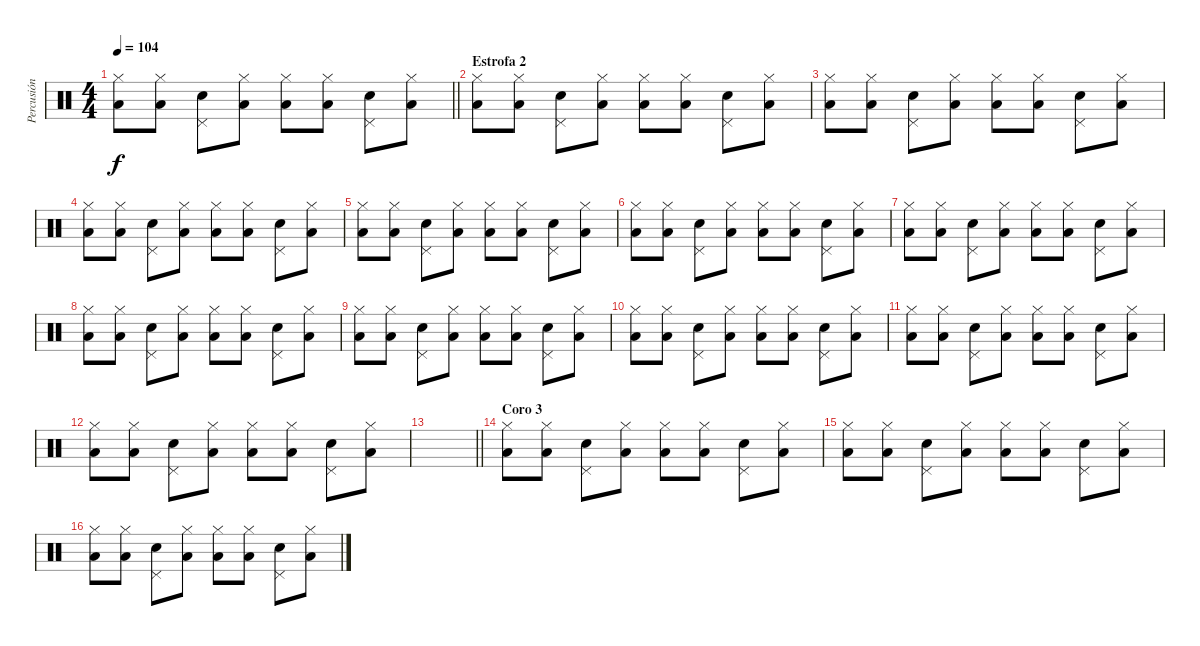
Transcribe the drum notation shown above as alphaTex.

\track ("Percusión" "Percusión") {instrument percussion}
\staff {score}
\articulation defaults
\ts (4 4)
\tempo 104
\clef neutral
\barLineRight lightlight
\ks c
("Low Floor Tom (hit)" "Hi-Hat (closed)").8{dy f} ("Low Floor Tom (hit)" "Hi-Hat (closed)").8 ("Pedal Hi-Hat (hit)" "Snare (hit) 2").8 ("Low Floor Tom (hit)" "Hi-Hat (closed)").8 ("Low Floor Tom (hit)" "Hi-Hat (closed)").8 ("Low Floor Tom (hit)" "Hi-Hat (closed)").8 ("Pedal Hi-Hat (hit)" "Snare (hit) 2").8 ("Low Floor Tom (hit)" "Hi-Hat (closed)").8 |
\section ("" "Estrofa 2")
("Low Floor Tom (hit)" "Hi-Hat (closed)").8 ("Low Floor Tom (hit)" "Hi-Hat (closed)").8 ("Pedal Hi-Hat (hit)" "Snare (hit) 2").8 ("Low Floor Tom (hit)" "Hi-Hat (closed)").8 ("Low Floor Tom (hit)" "Hi-Hat (closed)").8 ("Low Floor Tom (hit)" "Hi-Hat (closed)").8 ("Pedal Hi-Hat (hit)" "Snare (hit) 2").8 ("Low Floor Tom (hit)" "Hi-Hat (closed)").8 |
("Low Floor Tom (hit)" "Hi-Hat (closed)").8 ("Low Floor Tom (hit)" "Hi-Hat (closed)").8 ("Pedal Hi-Hat (hit)" "Snare (hit) 2").8 ("Low Floor Tom (hit)" "Hi-Hat (closed)").8 ("Low Floor Tom (hit)" "Hi-Hat (closed)").8 ("Low Floor Tom (hit)" "Hi-Hat (closed)").8 ("Pedal Hi-Hat (hit)" "Snare (hit) 2").8 ("Low Floor Tom (hit)" "Hi-Hat (closed)").8 |
("Low Floor Tom (hit)" "Hi-Hat (closed)").8 ("Low Floor Tom (hit)" "Hi-Hat (closed)").8 ("Pedal Hi-Hat (hit)" "Snare (hit) 2").8 ("Low Floor Tom (hit)" "Hi-Hat (closed)").8 ("Low Floor Tom (hit)" "Hi-Hat (closed)").8 ("Low Floor Tom (hit)" "Hi-Hat (closed)").8 ("Pedal Hi-Hat (hit)" "Snare (hit) 2").8 ("Low Floor Tom (hit)" "Hi-Hat (closed)").8 |
("Low Floor Tom (hit)" "Hi-Hat (closed)").8 ("Low Floor Tom (hit)" "Hi-Hat (closed)").8 ("Pedal Hi-Hat (hit)" "Snare (hit) 2").8 ("Low Floor Tom (hit)" "Hi-Hat (closed)").8 ("Low Floor Tom (hit)" "Hi-Hat (closed)").8 ("Low Floor Tom (hit)" "Hi-Hat (closed)").8 ("Pedal Hi-Hat (hit)" "Snare (hit) 2").8 ("Low Floor Tom (hit)" "Hi-Hat (closed)").8 |
("Low Floor Tom (hit)" "Hi-Hat (closed)").8 ("Low Floor Tom (hit)" "Hi-Hat (closed)").8 ("Pedal Hi-Hat (hit)" "Snare (hit) 2").8 ("Low Floor Tom (hit)" "Hi-Hat (closed)").8 ("Low Floor Tom (hit)" "Hi-Hat (closed)").8 ("Low Floor Tom (hit)" "Hi-Hat (closed)").8 ("Pedal Hi-Hat (hit)" "Snare (hit) 2").8 ("Low Floor Tom (hit)" "Hi-Hat (closed)").8 |
("Low Floor Tom (hit)" "Hi-Hat (closed)").8 ("Low Floor Tom (hit)" "Hi-Hat (closed)").8 ("Pedal Hi-Hat (hit)" "Snare (hit) 2").8 ("Low Floor Tom (hit)" "Hi-Hat (closed)").8 ("Low Floor Tom (hit)" "Hi-Hat (closed)").8 ("Low Floor Tom (hit)" "Hi-Hat (closed)").8 ("Pedal Hi-Hat (hit)" "Snare (hit) 2").8 ("Low Floor Tom (hit)" "Hi-Hat (closed)").8 |
("Low Floor Tom (hit)" "Hi-Hat (closed)").8 ("Low Floor Tom (hit)" "Hi-Hat (closed)").8 ("Pedal Hi-Hat (hit)" "Snare (hit) 2").8 ("Low Floor Tom (hit)" "Hi-Hat (closed)").8 ("Low Floor Tom (hit)" "Hi-Hat (closed)").8 ("Low Floor Tom (hit)" "Hi-Hat (closed)").8 ("Pedal Hi-Hat (hit)" "Snare (hit) 2").8 ("Low Floor Tom (hit)" "Hi-Hat (closed)").8 |
("Low Floor Tom (hit)" "Hi-Hat (closed)").8 ("Low Floor Tom (hit)" "Hi-Hat (closed)").8 ("Pedal Hi-Hat (hit)" "Snare (hit) 2").8 ("Low Floor Tom (hit)" "Hi-Hat (closed)").8 ("Low Floor Tom (hit)" "Hi-Hat (closed)").8 ("Low Floor Tom (hit)" "Hi-Hat (closed)").8 ("Pedal Hi-Hat (hit)" "Snare (hit) 2").8 ("Low Floor Tom (hit)" "Hi-Hat (closed)").8 |
("Low Floor Tom (hit)" "Hi-Hat (closed)").8 ("Low Floor Tom (hit)" "Hi-Hat (closed)").8 ("Pedal Hi-Hat (hit)" "Snare (hit) 2").8 ("Low Floor Tom (hit)" "Hi-Hat (closed)").8 ("Low Floor Tom (hit)" "Hi-Hat (closed)").8 ("Low Floor Tom (hit)" "Hi-Hat (closed)").8 ("Pedal Hi-Hat (hit)" "Snare (hit) 2").8 ("Low Floor Tom (hit)" "Hi-Hat (closed)").8 |
("Low Floor Tom (hit)" "Hi-Hat (closed)").8 ("Low Floor Tom (hit)" "Hi-Hat (closed)").8 ("Pedal Hi-Hat (hit)" "Snare (hit) 2").8 ("Low Floor Tom (hit)" "Hi-Hat (closed)").8 ("Low Floor Tom (hit)" "Hi-Hat (closed)").8 ("Low Floor Tom (hit)" "Hi-Hat (closed)").8 ("Pedal Hi-Hat (hit)" "Snare (hit) 2").8 ("Low Floor Tom (hit)" "Hi-Hat (closed)").8 |
("Low Floor Tom (hit)" "Hi-Hat (closed)").8 ("Low Floor Tom (hit)" "Hi-Hat (closed)").8 ("Pedal Hi-Hat (hit)" "Snare (hit) 2").8 ("Low Floor Tom (hit)" "Hi-Hat (closed)").8 ("Low Floor Tom (hit)" "Hi-Hat (closed)").8 ("Low Floor Tom (hit)" "Hi-Hat (closed)").8 ("Pedal Hi-Hat (hit)" "Snare (hit) 2").8 ("Low Floor Tom (hit)" "Hi-Hat (closed)").8 |
\barLineRight lightlight
|
\section ("" "Coro 3")
("Low Floor Tom (hit)" "Hi-Hat (closed)").8 ("Low Floor Tom (hit)" "Hi-Hat (closed)").8 ("Pedal Hi-Hat (hit)" "Snare (hit) 2").8 ("Low Floor Tom (hit)" "Hi-Hat (closed)").8 ("Low Floor Tom (hit)" "Hi-Hat (closed)").8 ("Low Floor Tom (hit)" "Hi-Hat (closed)").8 ("Pedal Hi-Hat (hit)" "Snare (hit) 2").8 ("Low Floor Tom (hit)" "Hi-Hat (closed)").8 |
("Low Floor Tom (hit)" "Hi-Hat (closed)").8 ("Low Floor Tom (hit)" "Hi-Hat (closed)").8 ("Pedal Hi-Hat (hit)" "Snare (hit) 2").8 ("Low Floor Tom (hit)" "Hi-Hat (closed)").8 ("Low Floor Tom (hit)" "Hi-Hat (closed)").8 ("Low Floor Tom (hit)" "Hi-Hat (closed)").8 ("Pedal Hi-Hat (hit)" "Snare (hit) 2").8 ("Low Floor Tom (hit)" "Hi-Hat (closed)").8 |
("Low Floor Tom (hit)" "Hi-Hat (closed)").8 ("Low Floor Tom (hit)" "Hi-Hat (closed)").8 ("Pedal Hi-Hat (hit)" "Snare (hit) 2").8 ("Low Floor Tom (hit)" "Hi-Hat (closed)").8 ("Low Floor Tom (hit)" "Hi-Hat (closed)").8 ("Low Floor Tom (hit)" "Hi-Hat (closed)").8 ("Pedal Hi-Hat (hit)" "Snare (hit) 2").8 ("Low Floor Tom (hit)" "Hi-Hat (closed)").8
